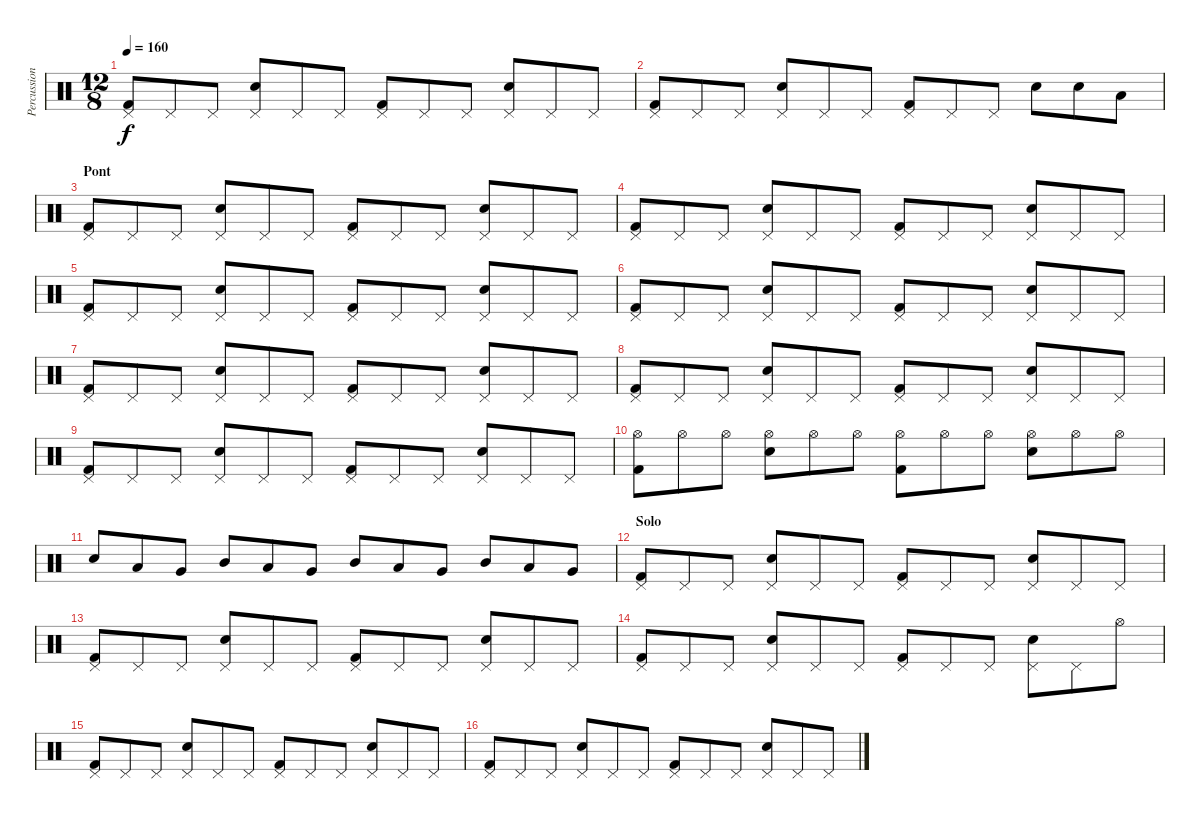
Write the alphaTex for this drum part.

\track ("Percussions" "Percussion") {instrument percussion}
\staff {score}
\articulation defaults
\ts (12 8)
\tempo 160
\clef neutral
\ks c
("Pedal Hi-Hat (hit)" "Kick (hit) 2").8{dy f} "Pedal Hi-Hat (hit)".8 "Pedal Hi-Hat (hit)".8 ("Pedal Hi-Hat (hit)" "Electric Snare (hit)").8 "Pedal Hi-Hat (hit)".8 "Pedal Hi-Hat (hit)".8 ("Pedal Hi-Hat (hit)" "Kick (hit) 2").8 "Pedal Hi-Hat (hit)".8 "Pedal Hi-Hat (hit)".8 ("Pedal Hi-Hat (hit)" "Electric Snare (hit)").8 "Pedal Hi-Hat (hit)".8 "Pedal Hi-Hat (hit)".8 |
("Pedal Hi-Hat (hit)" "Kick (hit) 2").8 "Pedal Hi-Hat (hit)".8 "Pedal Hi-Hat (hit)".8 ("Pedal Hi-Hat (hit)" "Electric Snare (hit)").8 "Pedal Hi-Hat (hit)".8 "Pedal Hi-Hat (hit)".8 ("Pedal Hi-Hat (hit)" "Kick (hit) 2").8 "Pedal Hi-Hat (hit)".8 "Pedal Hi-Hat (hit)".8 "Electric Snare (hit)".8 "Electric Snare (hit)".8 "Low Tom (hit)".8 |
\section ("" "Pont")
("Pedal Hi-Hat (hit)" "Kick (hit) 2").8 "Pedal Hi-Hat (hit)".8 "Pedal Hi-Hat (hit)".8 ("Pedal Hi-Hat (hit)" "Electric Snare (hit)").8 "Pedal Hi-Hat (hit)".8 "Pedal Hi-Hat (hit)".8 ("Pedal Hi-Hat (hit)" "Kick (hit) 2").8 "Pedal Hi-Hat (hit)".8 "Pedal Hi-Hat (hit)".8 ("Pedal Hi-Hat (hit)" "Electric Snare (hit)").8 "Pedal Hi-Hat (hit)".8 "Pedal Hi-Hat (hit)".8 |
("Pedal Hi-Hat (hit)" "Kick (hit) 2").8 "Pedal Hi-Hat (hit)".8 "Pedal Hi-Hat (hit)".8 ("Pedal Hi-Hat (hit)" "Electric Snare (hit)").8 "Pedal Hi-Hat (hit)".8 "Pedal Hi-Hat (hit)".8 ("Pedal Hi-Hat (hit)" "Kick (hit) 2").8 "Pedal Hi-Hat (hit)".8 "Pedal Hi-Hat (hit)".8 ("Pedal Hi-Hat (hit)" "Electric Snare (hit)").8 "Pedal Hi-Hat (hit)".8 "Pedal Hi-Hat (hit)".8 |
("Pedal Hi-Hat (hit)" "Kick (hit) 2").8 "Pedal Hi-Hat (hit)".8 "Pedal Hi-Hat (hit)".8 ("Pedal Hi-Hat (hit)" "Electric Snare (hit)").8 "Pedal Hi-Hat (hit)".8 "Pedal Hi-Hat (hit)".8 ("Pedal Hi-Hat (hit)" "Kick (hit) 2").8 "Pedal Hi-Hat (hit)".8 "Pedal Hi-Hat (hit)".8 ("Pedal Hi-Hat (hit)" "Electric Snare (hit)").8 "Pedal Hi-Hat (hit)".8 "Pedal Hi-Hat (hit)".8 |
("Pedal Hi-Hat (hit)" "Kick (hit) 2").8 "Pedal Hi-Hat (hit)".8 "Pedal Hi-Hat (hit)".8 ("Pedal Hi-Hat (hit)" "Electric Snare (hit)").8 "Pedal Hi-Hat (hit)".8 "Pedal Hi-Hat (hit)".8 ("Pedal Hi-Hat (hit)" "Kick (hit) 2").8 "Pedal Hi-Hat (hit)".8 "Pedal Hi-Hat (hit)".8 ("Pedal Hi-Hat (hit)" "Electric Snare (hit)").8 "Pedal Hi-Hat (hit)".8 "Pedal Hi-Hat (hit)".8 |
("Pedal Hi-Hat (hit)" "Kick (hit) 2").8 "Pedal Hi-Hat (hit)".8 "Pedal Hi-Hat (hit)".8 ("Pedal Hi-Hat (hit)" "Electric Snare (hit)").8 "Pedal Hi-Hat (hit)".8 "Pedal Hi-Hat (hit)".8 ("Pedal Hi-Hat (hit)" "Kick (hit) 2").8 "Pedal Hi-Hat (hit)".8 "Pedal Hi-Hat (hit)".8 ("Pedal Hi-Hat (hit)" "Electric Snare (hit)").8 "Pedal Hi-Hat (hit)".8 "Pedal Hi-Hat (hit)".8 |
("Pedal Hi-Hat (hit)" "Kick (hit) 2").8 "Pedal Hi-Hat (hit)".8 "Pedal Hi-Hat (hit)".8 ("Pedal Hi-Hat (hit)" "Electric Snare (hit)").8 "Pedal Hi-Hat (hit)".8 "Pedal Hi-Hat (hit)".8 ("Pedal Hi-Hat (hit)" "Kick (hit) 2").8 "Pedal Hi-Hat (hit)".8 "Pedal Hi-Hat (hit)".8 ("Pedal Hi-Hat (hit)" "Electric Snare (hit)").8 "Pedal Hi-Hat (hit)".8 "Pedal Hi-Hat (hit)".8 |
("Pedal Hi-Hat (hit)" "Kick (hit) 2").8 "Pedal Hi-Hat (hit)".8 "Pedal Hi-Hat (hit)".8 ("Pedal Hi-Hat (hit)" "Electric Snare (hit)").8 "Pedal Hi-Hat (hit)".8 "Pedal Hi-Hat (hit)".8 ("Pedal Hi-Hat (hit)" "Kick (hit) 2").8 "Pedal Hi-Hat (hit)".8 "Pedal Hi-Hat (hit)".8 ("Pedal Hi-Hat (hit)" "Electric Snare (hit)").8 "Pedal Hi-Hat (hit)".8 "Pedal Hi-Hat (hit)".8 |
("Hi-Hat (open)" "Kick (hit) 2").8 "Hi-Hat (open)".8 "Hi-Hat (open)".8 ("Hi-Hat (open)" "Electric Snare (hit)").8 "Hi-Hat (open)".8 "Hi-Hat (open)".8 ("Hi-Hat (open)" "Kick (hit) 2").8 "Hi-Hat (open)".8 "Hi-Hat (open)".8 ("Hi-Hat (open)" "Electric Snare (hit)").8 "Hi-Hat (open)".8 "Hi-Hat (open)".8 |
"Electric Snare (hit)".8 "Low Tom (hit)".8 "Very Low Tom (hit)".8 "Mid Tom (hit)".8 "Low Tom (hit)".8 "Very Low Tom (hit)".8 "Mid Tom (hit)".8 "Low Tom (hit)".8 "Very Low Tom (hit)".8 "Mid Tom (hit)".8 "Low Tom (hit)".8 "Very Low Tom (hit)".8 |
\section ("" "Solo")
("Pedal Hi-Hat (hit)" "Kick (hit) 2").8 "Pedal Hi-Hat (hit)".8 "Pedal Hi-Hat (hit)".8 ("Pedal Hi-Hat (hit)" "Electric Snare (hit)").8 "Pedal Hi-Hat (hit)".8 "Pedal Hi-Hat (hit)".8 ("Pedal Hi-Hat (hit)" "Kick (hit) 2").8 "Pedal Hi-Hat (hit)".8 "Pedal Hi-Hat (hit)".8 ("Pedal Hi-Hat (hit)" "Electric Snare (hit)").8 "Pedal Hi-Hat (hit)".8 "Pedal Hi-Hat (hit)".8 |
("Pedal Hi-Hat (hit)" "Kick (hit) 2").8 "Pedal Hi-Hat (hit)".8 "Pedal Hi-Hat (hit)".8 ("Pedal Hi-Hat (hit)" "Electric Snare (hit)").8 "Pedal Hi-Hat (hit)".8 "Pedal Hi-Hat (hit)".8 ("Pedal Hi-Hat (hit)" "Kick (hit) 2").8 "Pedal Hi-Hat (hit)".8 "Pedal Hi-Hat (hit)".8 ("Pedal Hi-Hat (hit)" "Electric Snare (hit)").8 "Pedal Hi-Hat (hit)".8 "Pedal Hi-Hat (hit)".8 |
("Pedal Hi-Hat (hit)" "Kick (hit) 2").8 "Pedal Hi-Hat (hit)".8 "Pedal Hi-Hat (hit)".8 ("Pedal Hi-Hat (hit)" "Electric Snare (hit)").8 "Pedal Hi-Hat (hit)".8 "Pedal Hi-Hat (hit)".8 ("Pedal Hi-Hat (hit)" "Kick (hit) 2").8 "Pedal Hi-Hat (hit)".8 "Pedal Hi-Hat (hit)".8 ("Pedal Hi-Hat (hit)" "Electric Snare (hit)").8 "Pedal Hi-Hat (hit)".8 "Hi-Hat (open)".8 |
("Pedal Hi-Hat (hit)" "Kick (hit) 2").8 "Pedal Hi-Hat (hit)".8 "Pedal Hi-Hat (hit)".8 ("Pedal Hi-Hat (hit)" "Electric Snare (hit)").8 "Pedal Hi-Hat (hit)".8 "Pedal Hi-Hat (hit)".8 ("Pedal Hi-Hat (hit)" "Kick (hit) 2").8 "Pedal Hi-Hat (hit)".8 "Pedal Hi-Hat (hit)".8 ("Pedal Hi-Hat (hit)" "Electric Snare (hit)").8 "Pedal Hi-Hat (hit)".8 "Pedal Hi-Hat (hit)".8 |
("Pedal Hi-Hat (hit)" "Kick (hit) 2").8 "Pedal Hi-Hat (hit)".8 "Pedal Hi-Hat (hit)".8 ("Pedal Hi-Hat (hit)" "Electric Snare (hit)").8 "Pedal Hi-Hat (hit)".8 "Pedal Hi-Hat (hit)".8 ("Pedal Hi-Hat (hit)" "Kick (hit) 2").8 "Pedal Hi-Hat (hit)".8 "Pedal Hi-Hat (hit)".8 ("Pedal Hi-Hat (hit)" "Electric Snare (hit)").8 "Pedal Hi-Hat (hit)".8 "Pedal Hi-Hat (hit)".8
